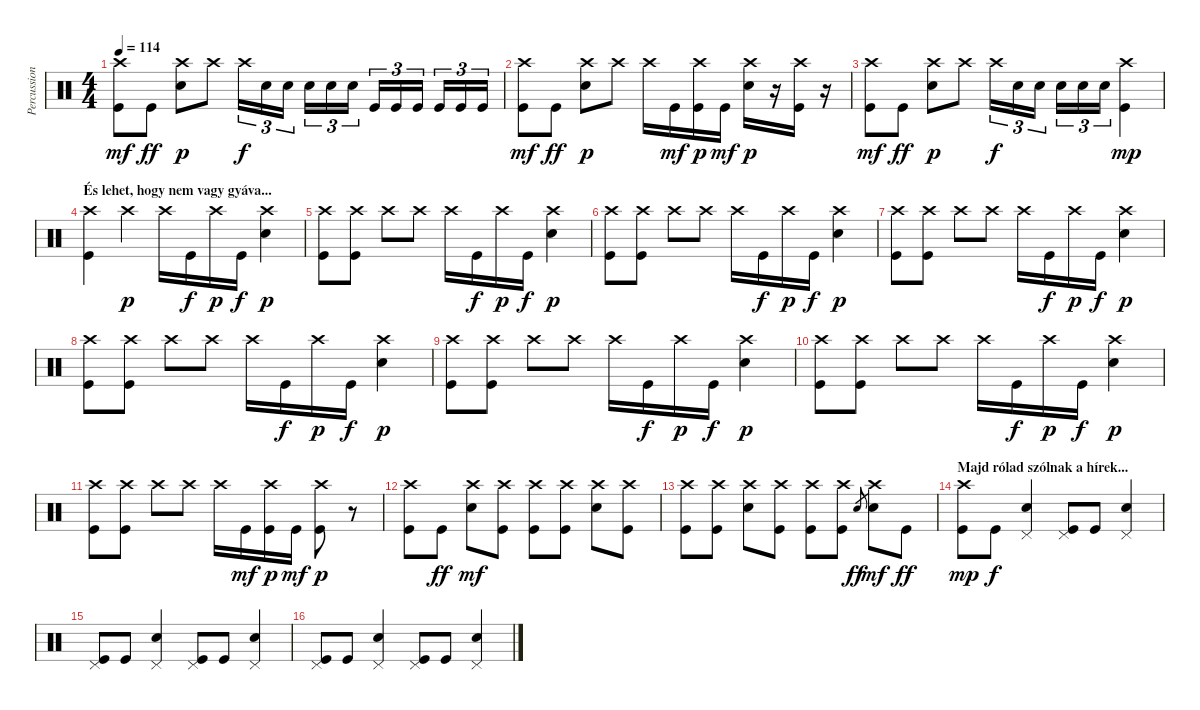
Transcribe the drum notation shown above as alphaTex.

\track ("Percussion" "Percussion") {instrument percussion}
\staff {score}
\articulation defaults
\ts (4 4)
\tempo 114
\clef neutral
\ks c
("Kick (hit)" "Crash high (hit)").8{dy mf} "Kick (hit)".8{dy ff} ("Electric Snare (hit)" "Crash high (hit)").8{dy p} "Crash high (hit)".8 "Crash high (hit)".16{tu (3 2) dy f} "Electric Snare (hit)".16{tu (3 2)} "Electric Snare (hit)".16{tu (3 2)} "Electric Snare (hit)".16{tu (3 2)} "Electric Snare (hit)".16{tu (3 2)} "Electric Snare (hit)".16{tu (3 2)} "Kick (hit)".16{tu (3 2)} "Kick (hit)".16{tu (3 2)} "Kick (hit)".16{tu (3 2)} "Kick (hit)".16{tu (3 2)} "Kick (hit)".16{tu (3 2)} "Kick (hit)".16{tu (3 2)} |
("Kick (hit)" "Crash high (hit)").8{dy mf} "Kick (hit)".8{dy ff} ("Electric Snare (hit)" "Crash high (hit)").8{dy p} "Crash high (hit)".8 "Crash high (hit)".16 "Kick (hit)".16{dy mf} ("Kick (hit)" "Crash high (hit)").16{dy p} "Kick (hit)".16{dy mf} ("Electric Snare (hit)" "Crash high (hit)").16{dy p} r.16 ("Kick (hit)" "Crash high (hit)").16 r.16 |
("Kick (hit)" "Crash high (hit)").8{dy mf} "Kick (hit)".8{dy ff} ("Electric Snare (hit)" "Crash high (hit)").8{dy p} "Crash high (hit)".8 "Crash high (hit)".16{tu (3 2) dy f} "Electric Snare (hit)".16{tu (3 2)} "Electric Snare (hit)".16{tu (3 2)} "Electric Snare (hit)".16{tu (3 2)} "Electric Snare (hit)".16{tu (3 2)} "Electric Snare (hit)".16{tu (3 2)} ("Kick (hit)" "Crash high (hit)").4{dy mp} |
\section ("" "És lehet, hogy nem vagy gyáva...")
("Kick (hit)" "Crash high (hit)").4 "Crash high (hit)".4{dy p} "Crash high (hit)".16 "Kick (hit)".16{dy f} "Crash high (hit)".16{dy p} "Kick (hit)".16{dy f} ("Electric Snare (hit)" "Crash high (hit)").4{dy p} |
("Kick (hit)" "Crash high (hit)").8 ("Kick (hit)" "Crash high (hit)").8 "Crash high (hit)".8 "Crash high (hit)".8 "Crash high (hit)".16 "Kick (hit)".16{dy f} "Crash high (hit)".16{dy p} "Kick (hit)".16{dy f} ("Electric Snare (hit)" "Crash high (hit)").4{dy p} |
("Kick (hit)" "Crash high (hit)").8 ("Kick (hit)" "Crash high (hit)").8 "Crash high (hit)".8 "Crash high (hit)".8 "Crash high (hit)".16 "Kick (hit)".16{dy f} "Crash high (hit)".16{dy p} "Kick (hit)".16{dy f} ("Electric Snare (hit)" "Crash high (hit)").4{dy p} |
("Kick (hit)" "Crash high (hit)").8 ("Kick (hit)" "Crash high (hit)").8 "Crash high (hit)".8 "Crash high (hit)".8 "Crash high (hit)".16 "Kick (hit)".16{dy f} "Crash high (hit)".16{dy p} "Kick (hit)".16{dy f} ("Electric Snare (hit)" "Crash high (hit)").4{dy p} |
("Kick (hit)" "Crash high (hit)").8 ("Kick (hit)" "Crash high (hit)").8 "Crash high (hit)".8 "Crash high (hit)".8 "Crash high (hit)".16 "Kick (hit)".16{dy f} "Crash high (hit)".16{dy p} "Kick (hit)".16{dy f} ("Electric Snare (hit)" "Crash high (hit)").4{dy p} |
("Kick (hit)" "Crash high (hit)").8 ("Kick (hit)" "Crash high (hit)").8 "Crash high (hit)".8 "Crash high (hit)".8 "Crash high (hit)".16 "Kick (hit)".16{dy f} "Crash high (hit)".16{dy p} "Kick (hit)".16{dy f} ("Electric Snare (hit)" "Crash high (hit)").4{dy p} |
("Kick (hit)" "Crash high (hit)").8 ("Kick (hit)" "Crash high (hit)").8 "Crash high (hit)".8 "Crash high (hit)".8 "Crash high (hit)".16 "Kick (hit)".16{dy f} "Crash high (hit)".16{dy p} "Kick (hit)".16{dy f} ("Electric Snare (hit)" "Crash high (hit)").4{dy p} |
("Kick (hit)" "Crash high (hit)").8 ("Kick (hit)" "Crash high (hit)").8 "Crash high (hit)".8 "Crash high (hit)".8 "Crash high (hit)".16 "Kick (hit)".16{dy mf} ("Kick (hit)" "Crash high (hit)").16{dy p} "Kick (hit)".16{dy mf} ("Kick (hit)" "Crash high (hit)").8{dy p} r.8 |
("Kick (hit)" "Crash high (hit)").8 "Kick (hit)".8{dy ff} ("Electric Snare (hit)" "Crash high (hit)").8{dy mf} ("Kick (hit)" "Crash high (hit)").8 ("Kick (hit)" "Crash high (hit)").8 ("Kick (hit)" "Crash high (hit)").8 ("Electric Snare (hit)" "Crash high (hit)").8 ("Kick (hit)" "Crash high (hit)").8 |
("Kick (hit)" "Crash high (hit)").8 ("Kick (hit)" "Crash high (hit)").8 ("Electric Snare (hit)" "Crash high (hit)").8 ("Kick (hit)" "Crash high (hit)").8 ("Kick (hit)" "Crash high (hit)").8 ("Kick (hit)" "Crash high (hit)").8 "Electric Snare (hit)".8{gr dy ff} ("Electric Snare (hit)" "Crash high (hit)").8{dy mf} "Kick (hit)".8{dy ff} |
\section ("" "Majd rólad szólnak a hírek...")
("Kick (hit)" "Crash high (hit)").8{dy mp} "Kick (hit)".8{dy f} ("Electric Snare (hit)" "Pedal Hi-Hat (hit)").4 ("Kick (hit)" "Pedal Hi-Hat (hit)").8 "Kick (hit)".8 ("Electric Snare (hit)" "Pedal Hi-Hat (hit)").4 |
("Kick (hit)" "Pedal Hi-Hat (hit)").8 "Kick (hit)".8 ("Electric Snare (hit)" "Pedal Hi-Hat (hit)").4 ("Kick (hit)" "Pedal Hi-Hat (hit)").8 "Kick (hit)".8 ("Electric Snare (hit)" "Pedal Hi-Hat (hit)").4 |
("Kick (hit)" "Pedal Hi-Hat (hit)").8 "Kick (hit)".8 ("Electric Snare (hit)" "Pedal Hi-Hat (hit)").4 ("Kick (hit)" "Pedal Hi-Hat (hit)").8 "Kick (hit)".8 ("Electric Snare (hit)" "Pedal Hi-Hat (hit)").4
